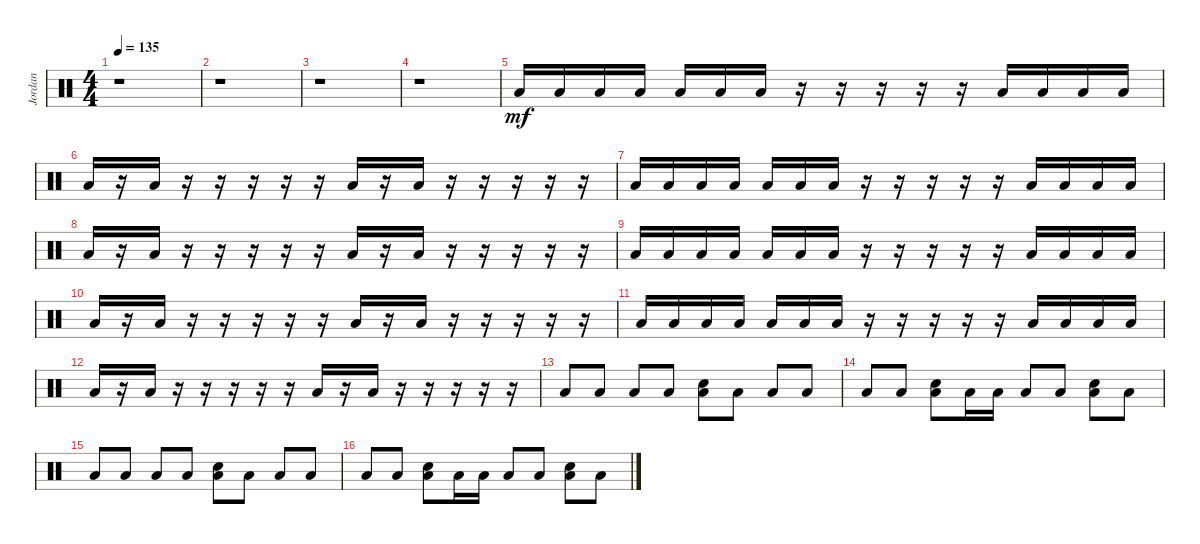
\track ("Jordan" "Jordan") {instrument percussion}
\staff {score}
\articulation defaults
\ts (4 4)
\tempo 135
\clef neutral
\ks c
r.1{dy mf} |
r.1 |
r.1 |
r.1 |
"Low Floor Tom (hit)".16 "Low Floor Tom (hit)".16 "Low Floor Tom (hit)".16 "Low Floor Tom (hit)".16 "Low Floor Tom (hit)".16 "Low Floor Tom (hit)".16 "Low Floor Tom (hit)".16 r.16 r.16 r.16 r.16 r.16 "Low Floor Tom (hit)".16 "Low Floor Tom (hit)".16 "Low Floor Tom (hit)".16 "Low Floor Tom (hit)".16 |
"Low Floor Tom (hit)".16 r.16 "Low Floor Tom (hit)".16 r.16 r.16 r.16 r.16 r.16 "Low Floor Tom (hit)".16 r.16 "Low Floor Tom (hit)".16 r.16 r.16 r.16 r.16 r.16 |
"Low Floor Tom (hit)".16 "Low Floor Tom (hit)".16 "Low Floor Tom (hit)".16 "Low Floor Tom (hit)".16 "Low Floor Tom (hit)".16 "Low Floor Tom (hit)".16 "Low Floor Tom (hit)".16 r.16 r.16 r.16 r.16 r.16 "Low Floor Tom (hit)".16 "Low Floor Tom (hit)".16 "Low Floor Tom (hit)".16 "Low Floor Tom (hit)".16 |
"Low Floor Tom (hit)".16 r.16 "Low Floor Tom (hit)".16 r.16 r.16 r.16 r.16 r.16 "Low Floor Tom (hit)".16 r.16 "Low Floor Tom (hit)".16 r.16 r.16 r.16 r.16 r.16 |
"Low Floor Tom (hit)".16 "Low Floor Tom (hit)".16 "Low Floor Tom (hit)".16 "Low Floor Tom (hit)".16 "Low Floor Tom (hit)".16 "Low Floor Tom (hit)".16 "Low Floor Tom (hit)".16 r.16 r.16 r.16 r.16 r.16 "Low Floor Tom (hit)".16 "Low Floor Tom (hit)".16 "Low Floor Tom (hit)".16 "Low Floor Tom (hit)".16 |
"Low Floor Tom (hit)".16 r.16 "Low Floor Tom (hit)".16 r.16 r.16 r.16 r.16 r.16 "Low Floor Tom (hit)".16 r.16 "Low Floor Tom (hit)".16 r.16 r.16 r.16 r.16 r.16 |
"Low Floor Tom (hit)".16 "Low Floor Tom (hit)".16 "Low Floor Tom (hit)".16 "Low Floor Tom (hit)".16 "Low Floor Tom (hit)".16 "Low Floor Tom (hit)".16 "Low Floor Tom (hit)".16 r.16 r.16 r.16 r.16 r.16 "Low Floor Tom (hit)".16 "Low Floor Tom (hit)".16 "Low Floor Tom (hit)".16 "Low Floor Tom (hit)".16 |
"Low Floor Tom (hit)".16 r.16 "Low Floor Tom (hit)".16 r.16 r.16 r.16 r.16 r.16 "Low Floor Tom (hit)".16 r.16 "Low Floor Tom (hit)".16 r.16 r.16 r.16 r.16 r.16 |
"Low Floor Tom (hit)".8 "Low Floor Tom (hit)".8 "Low Floor Tom (hit)".8 "Low Floor Tom (hit)".8 ("Snare (hit) 2" "Low Floor Tom (hit)").8 "Low Floor Tom (hit)".8 "Low Floor Tom (hit)".8 "Low Floor Tom (hit)".8 |
"Low Floor Tom (hit)".8 "Low Floor Tom (hit)".8 ("Low Floor Tom (hit)" "Snare (hit) 2").8 "Low Floor Tom (hit)".16 "Low Floor Tom (hit)".16 "Low Floor Tom (hit)".8 "Low Floor Tom (hit)".8 ("Low Floor Tom (hit)" "Snare (hit) 2").8 "Low Floor Tom (hit)".8 |
"Low Floor Tom (hit)".8 "Low Floor Tom (hit)".8 "Low Floor Tom (hit)".8 "Low Floor Tom (hit)".8 ("Snare (hit) 2" "Low Floor Tom (hit)").8 "Low Floor Tom (hit)".8 "Low Floor Tom (hit)".8 "Low Floor Tom (hit)".8 |
"Low Floor Tom (hit)".8 "Low Floor Tom (hit)".8 ("Low Floor Tom (hit)" "Snare (hit) 2").8 "Low Floor Tom (hit)".16 "Low Floor Tom (hit)".16 "Low Floor Tom (hit)".8 "Low Floor Tom (hit)".8 ("Low Floor Tom (hit)" "Snare (hit) 2").8 "Low Floor Tom (hit)".8
